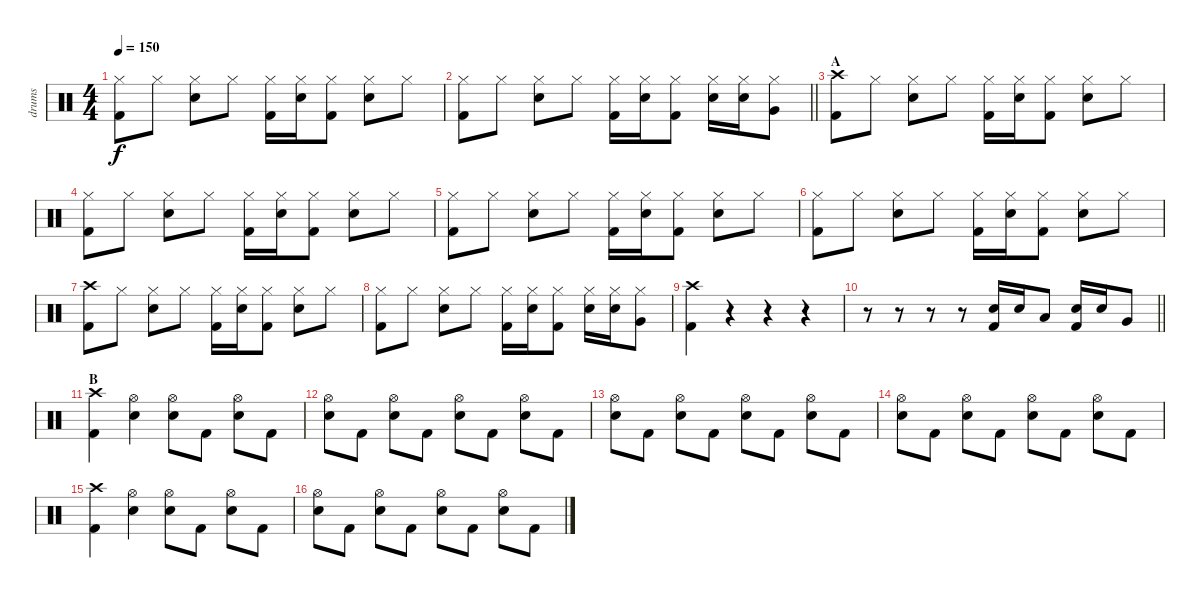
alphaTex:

\track ("drums" "drums") {instrument percussion}
\staff {score}
\articulation defaults
\ts (4 4)
\tempo 150
\clef neutral
\ks c
("Hi-Hat (closed)" "Kick (hit) 2").8{dy f} "Hi-Hat (closed)".8 ("Hi-Hat (closed)" "Electric Snare (hit)").8 "Hi-Hat (closed)".8 ("Hi-Hat (closed)" "Kick (hit) 2").16 ("Hi-Hat (closed)" "Electric Snare (hit)").16 ("Hi-Hat (closed)" "Kick (hit) 2").8 ("Hi-Hat (closed)" "Electric Snare (hit)").8 "Hi-Hat (closed)".8 |
\barLineRight lightlight
("Hi-Hat (closed)" "Kick (hit) 2").8 "Hi-Hat (closed)".8 ("Hi-Hat (closed)" "Electric Snare (hit)").8 "Hi-Hat (closed)".8 ("Hi-Hat (closed)" "Kick (hit) 2").16 ("Hi-Hat (closed)" "Electric Snare (hit)").16 ("Hi-Hat (closed)" "Kick (hit) 2").8 ("Hi-Hat (closed)" "Electric Snare (hit)").16 ("Hi-Hat (closed)" "Electric Snare (hit)").16 ("Hi-Hat (closed)" "Very Low Tom (hit)").8 |
\section ("" "A")
("Crash high (hit)" "Kick (hit) 2").8 "Hi-Hat (closed)".8 ("Hi-Hat (closed)" "Electric Snare (hit)").8 "Hi-Hat (closed)".8 ("Hi-Hat (closed)" "Kick (hit) 2").16 ("Hi-Hat (closed)" "Electric Snare (hit)").16 ("Hi-Hat (closed)" "Kick (hit) 2").8 ("Hi-Hat (closed)" "Electric Snare (hit)").8 "Hi-Hat (closed)".8 |
("Hi-Hat (closed)" "Kick (hit) 2").8 "Hi-Hat (closed)".8 ("Hi-Hat (closed)" "Electric Snare (hit)").8 "Hi-Hat (closed)".8 ("Hi-Hat (closed)" "Kick (hit) 2").16 ("Hi-Hat (closed)" "Electric Snare (hit)").16 ("Hi-Hat (closed)" "Kick (hit) 2").8 ("Hi-Hat (closed)" "Electric Snare (hit)").8 "Hi-Hat (closed)".8 |
("Hi-Hat (closed)" "Kick (hit) 2").8 "Hi-Hat (closed)".8 ("Hi-Hat (closed)" "Electric Snare (hit)").8 "Hi-Hat (closed)".8 ("Hi-Hat (closed)" "Kick (hit) 2").16 ("Hi-Hat (closed)" "Electric Snare (hit)").16 ("Hi-Hat (closed)" "Kick (hit) 2").8 ("Hi-Hat (closed)" "Electric Snare (hit)").8 "Hi-Hat (closed)".8 |
("Hi-Hat (closed)" "Kick (hit) 2").8 "Hi-Hat (closed)".8 ("Hi-Hat (closed)" "Electric Snare (hit)").8 "Hi-Hat (closed)".8 ("Hi-Hat (closed)" "Kick (hit) 2").16 ("Hi-Hat (closed)" "Electric Snare (hit)").16 ("Hi-Hat (closed)" "Kick (hit) 2").8 ("Hi-Hat (closed)" "Electric Snare (hit)").8 "Hi-Hat (closed)".8 |
("Crash high (hit)" "Kick (hit) 2").8 "Hi-Hat (closed)".8 ("Hi-Hat (closed)" "Electric Snare (hit)").8 "Hi-Hat (closed)".8 ("Hi-Hat (closed)" "Kick (hit) 2").16 ("Hi-Hat (closed)" "Electric Snare (hit)").16 ("Hi-Hat (closed)" "Kick (hit) 2").8 ("Hi-Hat (closed)" "Electric Snare (hit)").8 "Hi-Hat (closed)".8 |
("Hi-Hat (closed)" "Kick (hit) 2").8 "Hi-Hat (closed)".8 ("Hi-Hat (closed)" "Electric Snare (hit)").8 "Hi-Hat (closed)".8 ("Hi-Hat (closed)" "Kick (hit) 2").16 ("Hi-Hat (closed)" "Electric Snare (hit)").16 ("Hi-Hat (closed)" "Kick (hit) 2").8 ("Hi-Hat (closed)" "Electric Snare (hit)").16 ("Hi-Hat (closed)" "Electric Snare (hit)").16 ("Hi-Hat (closed)" "Very Low Tom (hit)").8 |
("Crash high (hit)" "Kick (hit) 2").4 r.4 r.4 r.4 |
\barLineRight lightlight
r.8 r.8 r.8 r.8 ("Electric Snare (hit)" "Kick (hit) 2").16 "Electric Snare (hit)".16 "Low Tom (hit)".8 ("Electric Snare (hit)" "Kick (hit) 2").16 "Electric Snare (hit)".16 "Very Low Tom (hit)".8 |
\section ("" "B")
("Crash high (hit)" "Kick (hit) 2").4 ("Hi-Hat (open)" "Electric Snare (hit)").4 ("Hi-Hat (open)" "Electric Snare (hit)").8 "Kick (hit) 2".8 ("Hi-Hat (open)" "Electric Snare (hit)").8 "Kick (hit) 2".8 |
("Hi-Hat (open)" "Electric Snare (hit)").8 "Kick (hit) 2".8 ("Hi-Hat (open)" "Electric Snare (hit)").8 "Kick (hit) 2".8 ("Hi-Hat (open)" "Electric Snare (hit)").8 "Kick (hit) 2".8 ("Hi-Hat (open)" "Electric Snare (hit)").8 "Kick (hit) 2".8 |
("Hi-Hat (open)" "Electric Snare (hit)").8 "Kick (hit) 2".8 ("Hi-Hat (open)" "Electric Snare (hit)").8 "Kick (hit) 2".8 ("Hi-Hat (open)" "Electric Snare (hit)").8 "Kick (hit) 2".8 ("Hi-Hat (open)" "Electric Snare (hit)").8 "Kick (hit) 2".8 |
("Hi-Hat (open)" "Electric Snare (hit)").8 "Kick (hit) 2".8 ("Hi-Hat (open)" "Electric Snare (hit)").8 "Kick (hit) 2".8 ("Hi-Hat (open)" "Electric Snare (hit)").8 "Kick (hit) 2".8 ("Hi-Hat (open)" "Electric Snare (hit)").8 "Kick (hit) 2".8 |
("Crash high (hit)" "Kick (hit) 2").4 ("Hi-Hat (open)" "Electric Snare (hit)").4 ("Hi-Hat (open)" "Electric Snare (hit)").8 "Kick (hit) 2".8 ("Hi-Hat (open)" "Electric Snare (hit)").8 "Kick (hit) 2".8 |
("Hi-Hat (open)" "Electric Snare (hit)").8 "Kick (hit) 2".8 ("Hi-Hat (open)" "Electric Snare (hit)").8 "Kick (hit) 2".8 ("Hi-Hat (open)" "Electric Snare (hit)").8 "Kick (hit) 2".8 ("Hi-Hat (open)" "Electric Snare (hit)").8 "Kick (hit) 2".8
